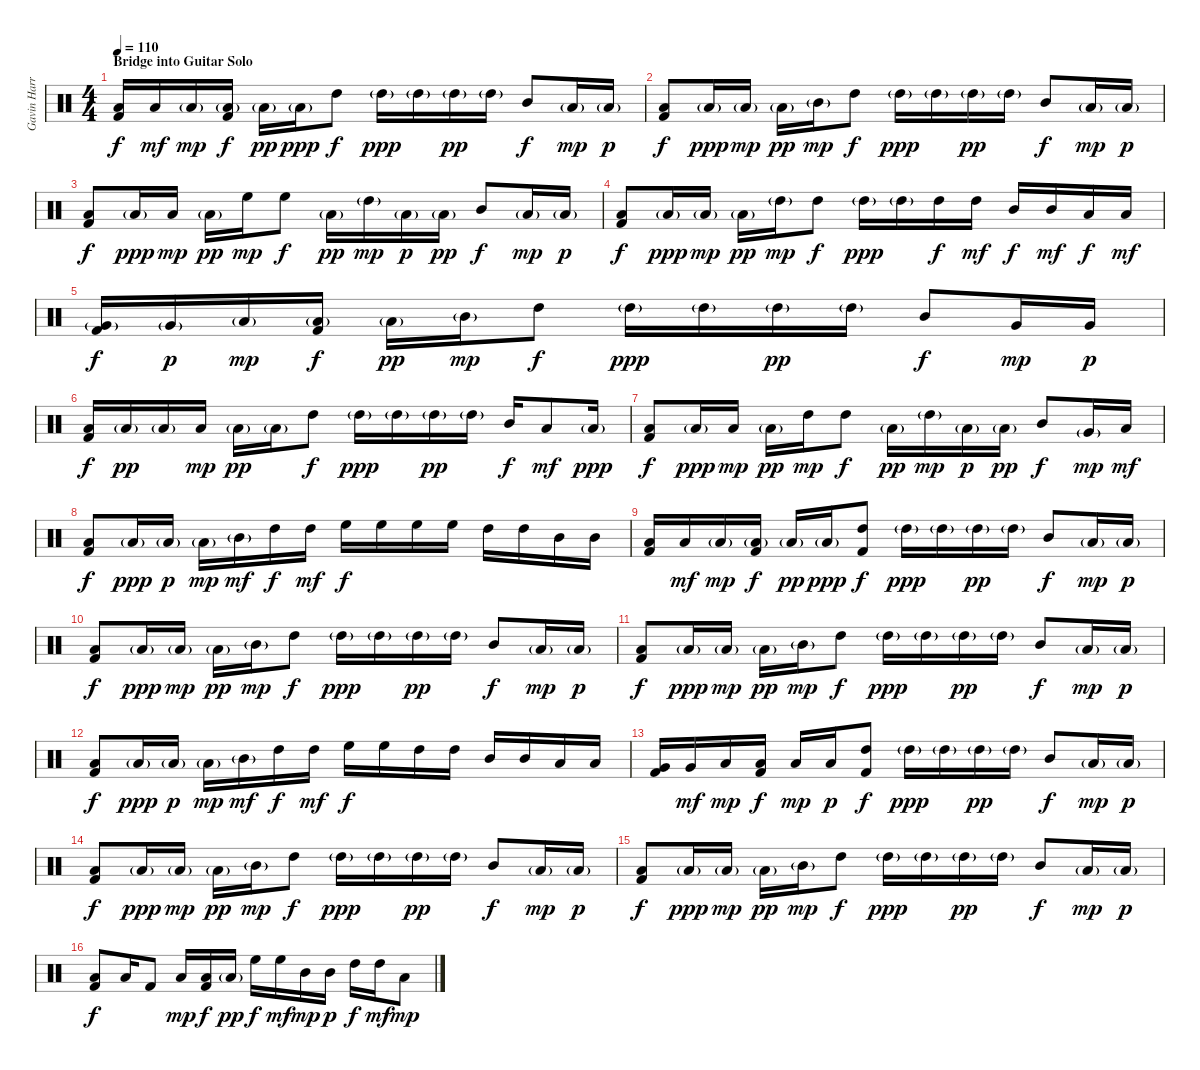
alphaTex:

\track ("Gavin Harrison - Drums" "Gavin Harr") {instrument percussion}
\staff {score}
\articulation defaults
\ts (4 4)
\section ("" "Bridge into Guitar Solo")
\tempo 110
\clef neutral
\ks c
("Low Tom (hit)" "Kick (hit) 2").16{dy f} "Low Tom (hit)".16{dy mf} "Low Floor Tom (hit)"{g}.16{dy mp} ("Low Floor Tom (hit)"{g} "Kick (hit) 2").16{dy f} "Low Floor Tom (hit)"{g}.16{dy pp} "Low Floor Tom (hit)"{g}.16{dy ppp} "High Tom (hit)".8{dy f} "High Tom (hit)"{g}.16{dy ppp} "High Tom (hit)"{g}.16 "High Tom (hit)"{g}.16{dy pp} "High Tom (hit)"{g}.16 "Mid Tom (hit)".8{dy f} "Low Tom (hit)"{g}.16{dy mp} "Low Tom (hit)"{g}.16{dy p} |
("Low Floor Tom (hit)" "Kick (hit) 2").8{dy f} "Low Floor Tom (hit)"{g}.16{dy ppp} "Low Tom (hit)"{g}.16{dy mp} "Low Tom (hit)"{g}.16{dy pp} "Mid Tom (hit)"{g}.16{dy mp} "High Tom (hit)".8{dy f} "High Tom (hit)"{g}.16{dy ppp} "High Tom (hit)"{g}.16 "High Tom (hit)"{g}.16{dy pp} "High Tom (hit)"{g}.16 "Mid Tom (hit)".8{dy f} "Low Tom (hit)"{g}.16{dy mp} "Low Tom (hit)"{g}.16{dy p} |
("Low Floor Tom (hit)" "Kick (hit) 2").8{dy f} "Low Floor Tom (hit)"{g}.16{dy ppp} "Low Tom (hit)".16{dy mp} "Low Tom (hit)"{g}.16{dy pp} "High Floor Tom (hit)".16{dy mp} "High Floor Tom (hit)".8{dy f} "Low Tom (hit)"{g}.16{dy pp} "High Tom (hit)"{g}.16{dy mp} "Low Tom (hit)"{g}.16{dy p} "Low Tom (hit)"{g}.16{dy pp} "Mid Tom (hit)".8{dy f} "Low Tom (hit)"{g}.16{dy mp} "Low Tom (hit)"{g}.16{dy p} |
("Low Floor Tom (hit)" "Kick (hit) 2").8{dy f} "Low Floor Tom (hit)"{g}.16{dy ppp} "Low Tom (hit)"{g}.16{dy mp} "Low Tom (hit)"{g}.16{dy pp} "High Tom (hit)"{g}.16{dy mp} "High Tom (hit)".8{dy f} "High Tom (hit)"{g}.16{dy ppp} "High Tom (hit)"{g}.16 "High Tom (hit)".16{dy f} "High Tom (hit)".16{dy mf} "Mid Tom (hit)".16{dy f} "Mid Tom (hit)".16{dy mf} "Low Tom (hit)".16{dy f} "Low Tom (hit)".16{dy mf} |
("Very Low Tom (hit)"{g} "Kick (hit) 2").16{dy f} "Very Low Tom (hit)"{g}.16{dy p} "Low Floor Tom (hit)"{g}.16{dy mp} ("Low Floor Tom (hit)"{g} "Kick (hit) 2").16{dy f} "Low Floor Tom (hit)"{g}.16{dy pp} "Mid Tom (hit)"{g}.16{dy mp} "High Tom (hit)".8{dy f} "High Tom (hit)"{g}.16{dy ppp} "High Tom (hit)"{g}.16 "High Tom (hit)"{g}.16{dy pp} "High Tom (hit)"{g}.16 "Mid Tom (hit)".8{dy f} "Very Low Tom (hit)".16{dy mp} "Very Low Tom (hit)".16{dy p} |
("Low Floor Tom (hit)" "Kick (hit) 2").16{dy f} "Low Floor Tom (hit)"{g}.16{dy pp} "Low Floor Tom (hit)"{g}.16 "Low Tom (hit)".16{dy mp} "Low Tom (hit)"{g}.16{dy pp} "Low Tom (hit)"{g}.16 "High Tom (hit)".8{dy f} "High Tom (hit)"{g}.16{dy ppp} "High Tom (hit)"{g}.16 "High Tom (hit)"{g}.16{dy pp} "High Tom (hit)"{g}.16 "Mid Tom (hit)".16{dy f} "Low Floor Tom (hit)".8{dy mf} "Low Floor Tom (hit)"{g}.16{dy ppp} |
("Low Floor Tom (hit)" "Kick (hit) 2").8{dy f} "Low Floor Tom (hit)"{g}.16{dy ppp} "Low Tom (hit)".16{dy mp} "Low Tom (hit)"{g}.16{dy pp} "High Tom (hit)".16{dy mp} "High Tom (hit)".8{dy f} "Low Tom (hit)"{g}.16{dy pp} "High Tom (hit)"{g}.16{dy mp} "Low Tom (hit)"{g}.16{dy p} "Low Tom (hit)"{g}.16{dy pp} "Mid Tom (hit)".8{dy f} "Very Low Tom (hit)"{g}.16{dy mp} "Low Tom (hit)".16{dy mf} |
("Low Floor Tom (hit)" "Kick (hit) 2").8{dy f} "Low Floor Tom (hit)"{g}.16{dy ppp} "Low Tom (hit)"{g}.16{dy p} "Low Tom (hit)"{g}.16{dy mp} "Mid Tom (hit)"{g}.16{dy mf} "High Tom (hit)".16{dy f} "High Tom (hit)".16{dy mf} "High Floor Tom (hit)".16{dy f} "High Floor Tom (hit)".16 "High Floor Tom (hit)".16 "High Floor Tom (hit)".16 "High Tom (hit)".16 "High Tom (hit)".16 "Mid Tom (hit)".16 "Mid Tom (hit)".16 |
("Low Tom (hit)" "Kick (hit) 2").16 "Low Tom (hit)".16{dy mf} "Low Floor Tom (hit)"{g}.16{dy mp} ("Low Floor Tom (hit)"{g} "Kick (hit) 2").16{dy f} "Low Floor Tom (hit)"{g}.16{dy pp} "Low Floor Tom (hit)"{g}.16{dy ppp} ("High Tom (hit)" "Kick (hit) 2").8{dy f} "High Tom (hit)"{g}.16{dy ppp} "High Tom (hit)"{g}.16 "High Tom (hit)"{g}.16{dy pp} "High Tom (hit)"{g}.16 "Mid Tom (hit)".8{dy f} "Low Tom (hit)"{g}.16{dy mp} "Low Tom (hit)"{g}.16{dy p} |
("Low Floor Tom (hit)" "Kick (hit) 2").8{dy f} "Low Floor Tom (hit)"{g}.16{dy ppp} "Low Tom (hit)"{g}.16{dy mp} "Low Tom (hit)"{g}.16{dy pp} "Mid Tom (hit)"{g}.16{dy mp} "High Tom (hit)".8{dy f} "High Tom (hit)"{g}.16{dy ppp} "High Tom (hit)"{g}.16 "High Tom (hit)"{g}.16{dy pp} "High Tom (hit)"{g}.16 "Mid Tom (hit)".8{dy f} "Low Tom (hit)"{g}.16{dy mp} "Low Tom (hit)"{g}.16{dy p} |
("Low Floor Tom (hit)" "Kick (hit) 2").8{dy f} "Low Floor Tom (hit)"{g}.16{dy ppp} "Low Tom (hit)"{g}.16{dy mp} "Low Tom (hit)"{g}.16{dy pp} "Mid Tom (hit)"{g}.16{dy mp} "High Tom (hit)".8{dy f} "High Tom (hit)"{g}.16{dy ppp} "High Tom (hit)"{g}.16 "High Tom (hit)"{g}.16{dy pp} "High Tom (hit)"{g}.16 "Mid Tom (hit)".8{dy f} "Low Tom (hit)"{g}.16{dy mp} "Low Tom (hit)"{g}.16{dy p} |
("Low Floor Tom (hit)" "Kick (hit) 2").8{dy f} "Low Floor Tom (hit)"{g}.16{dy ppp} "Low Tom (hit)"{g}.16{dy p} "Low Tom (hit)"{g}.16{dy mp} "Mid Tom (hit)"{g}.16{dy mf} "High Tom (hit)".16{dy f} "High Tom (hit)".16{dy mf} "High Floor Tom (hit)".16{dy f} "High Floor Tom (hit)".16 "High Tom (hit)".16 "High Tom (hit)".16 "Mid Tom (hit)".16 "Mid Tom (hit)".16 "Low Tom (hit)".16 "Low Tom (hit)".16 |
("Very Low Tom (hit)" "Kick (hit) 2").16 "Very Low Tom (hit)".16{dy mf} "Low Floor Tom (hit)".16{dy mp} ("Low Floor Tom (hit)" "Kick (hit) 2").16{dy f} "Low Floor Tom (hit)".16{dy mp} "Low Floor Tom (hit)".16{dy p} ("High Tom (hit)" "Kick (hit) 2").8{dy f} "High Tom (hit)"{g}.16{dy ppp} "High Tom (hit)"{g}.16 "High Tom (hit)"{g}.16{dy pp} "High Tom (hit)"{g}.16 "Mid Tom (hit)".8{dy f} "Low Tom (hit)"{g}.16{dy mp} "Low Tom (hit)"{g}.16{dy p} |
("Low Floor Tom (hit)" "Kick (hit) 2").8{dy f} "Low Floor Tom (hit)"{g}.16{dy ppp} "Low Tom (hit)"{g}.16{dy mp} "Low Tom (hit)"{g}.16{dy pp} "Mid Tom (hit)"{g}.16{dy mp} "High Tom (hit)".8{dy f} "High Tom (hit)"{g}.16{dy ppp} "High Tom (hit)"{g}.16 "High Tom (hit)"{g}.16{dy pp} "High Tom (hit)"{g}.16 "Mid Tom (hit)".8{dy f} "Low Tom (hit)"{g}.16{dy mp} "Low Tom (hit)"{g}.16{dy p} |
("Low Floor Tom (hit)" "Kick (hit) 2").8{dy f} "Low Floor Tom (hit)"{g}.16{dy ppp} "Low Tom (hit)"{g}.16{dy mp} "Low Tom (hit)"{g}.16{dy pp} "Mid Tom (hit)"{g}.16{dy mp} "High Tom (hit)".8{dy f} "High Tom (hit)"{g}.16{dy ppp} "High Tom (hit)"{g}.16 "High Tom (hit)"{g}.16{dy pp} "High Tom (hit)"{g}.16 "Mid Tom (hit)".8{dy f} "Low Tom (hit)"{g}.16{dy mp} "Low Tom (hit)"{g}.16{dy p} |
("Low Floor Tom (hit)" "Kick (hit) 2").8{dy f} "Low Floor Tom (hit)".16 "Kick (hit) 2".8 "Low Tom (hit)".16{dy mp} ("Low Tom (hit)" "Kick (hit) 2").16{dy f} "Low Tom (hit)"{g}.16{dy pp} "High Floor Tom (hit)".16{dy f} "High Floor Tom (hit)".16{dy mf} "Mid Tom (hit)".16{dy mp} "Mid Tom (hit)".16{dy p} "High Tom (hit)".16{dy f} "High Tom (hit)".16{dy mf} "Low Tom (hit)".8{dy mp}
